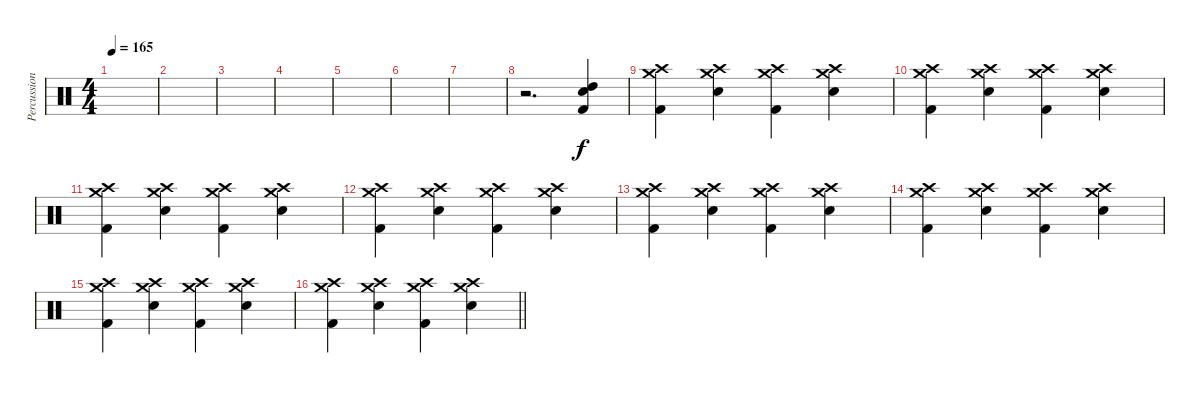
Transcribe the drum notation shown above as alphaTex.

\track ("Percussion" "Percussion") {instrument percussion}
\staff {score}
\articulation defaults
\ts (4 4)
\tempo 165
\clef neutral
\ks c
|
|
|
|
|
|
|
r.2{d} ("Snare (hit) 2" "High Tom (hit)" "Kick (hit) 2").4 |
("Crash high (hit)" "Crash medium (hit)" "Kick (hit) 2").4 ("Crash high (hit)" "Crash medium (hit)" "Snare (hit) 2").4 ("Crash high (hit)" "Crash medium (hit)" "Kick (hit) 2").4 ("Crash high (hit)" "Crash medium (hit)" "Snare (hit) 2").4 |
("Crash high (hit)" "Crash medium (hit)" "Kick (hit) 2").4 ("Crash high (hit)" "Crash medium (hit)" "Snare (hit) 2").4 ("Crash high (hit)" "Crash medium (hit)" "Kick (hit) 2").4 ("Crash high (hit)" "Crash medium (hit)" "Snare (hit) 2").4 |
("Crash high (hit)" "Crash medium (hit)" "Kick (hit) 2").4 ("Crash high (hit)" "Crash medium (hit)" "Snare (hit) 2").4 ("Crash high (hit)" "Crash medium (hit)" "Kick (hit) 2").4 ("Crash high (hit)" "Crash medium (hit)" "Snare (hit) 2").4 |
("Crash high (hit)" "Crash medium (hit)" "Kick (hit) 2").4 ("Crash high (hit)" "Crash medium (hit)" "Snare (hit) 2").4 ("Crash high (hit)" "Crash medium (hit)" "Kick (hit) 2").4 ("Crash high (hit)" "Crash medium (hit)" "Snare (hit) 2").4 |
("Crash high (hit)" "Crash medium (hit)" "Kick (hit) 2").4 ("Crash high (hit)" "Crash medium (hit)" "Snare (hit) 2").4 ("Crash high (hit)" "Crash medium (hit)" "Kick (hit) 2").4 ("Crash high (hit)" "Crash medium (hit)" "Snare (hit) 2").4 |
("Crash high (hit)" "Crash medium (hit)" "Kick (hit) 2").4 ("Crash high (hit)" "Crash medium (hit)" "Snare (hit) 2").4 ("Crash high (hit)" "Crash medium (hit)" "Kick (hit) 2").4 ("Crash high (hit)" "Crash medium (hit)" "Snare (hit) 2").4 |
("Crash high (hit)" "Crash medium (hit)" "Kick (hit) 2").4 ("Crash high (hit)" "Crash medium (hit)" "Snare (hit) 2").4 ("Crash high (hit)" "Crash medium (hit)" "Kick (hit) 2").4 ("Crash high (hit)" "Crash medium (hit)" "Snare (hit) 2").4 |
\barLineRight lightlight
("Crash high (hit)" "Crash medium (hit)" "Kick (hit) 2").4 ("Crash high (hit)" "Crash medium (hit)" "Snare (hit) 2").4 ("Crash high (hit)" "Crash medium (hit)" "Kick (hit) 2").4 ("Crash high (hit)" "Crash medium (hit)" "Snare (hit) 2").4
